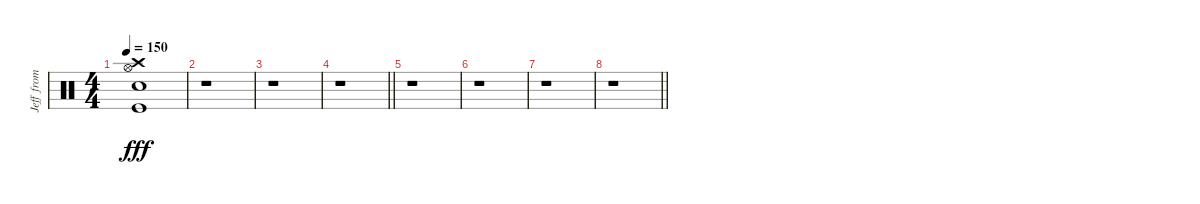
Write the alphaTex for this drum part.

\track ("Jeff from Chelsea - Drum" "Jeff from ") {instrument percussion bank 27}
\staff {score}
\articulation defaults
\ts (4 4)
\tempo 150
\clef neutral
\ks c
("Crash high (hit)" "Hi-Hat (open)" "Snare (hit) 2" "Kick (hit)").1{dy fff} |
r.1 |
r.1 |
\barLineRight lightlight
r.1 |
r.1 |
r.1 |
r.1 |
\barLineRight lightlight
r.1
